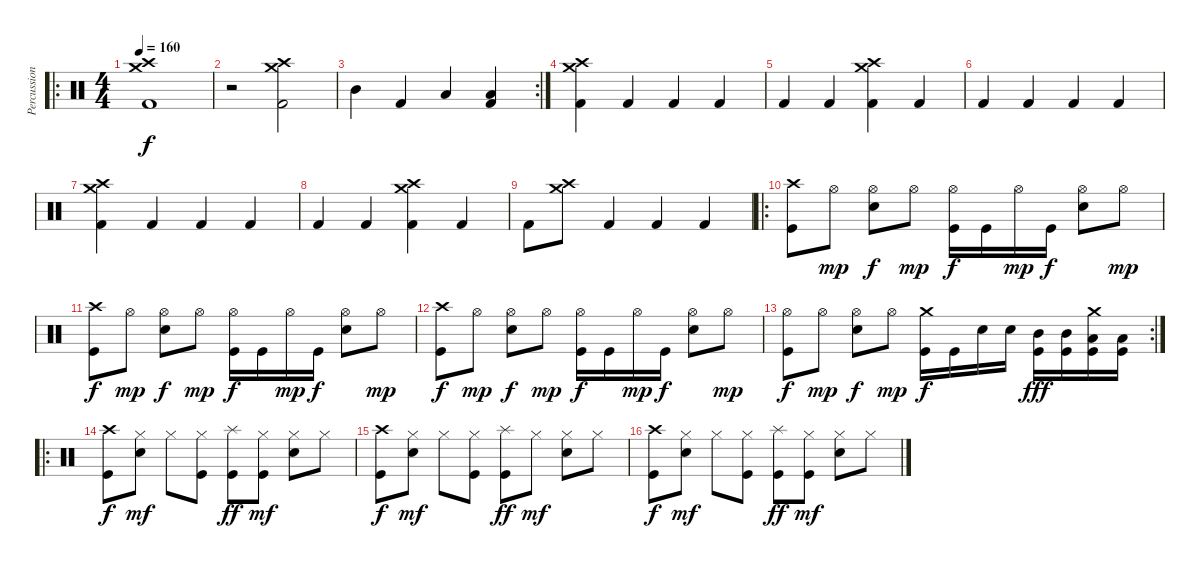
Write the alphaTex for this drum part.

\track ("Percussion" "Percussion") {instrument percussion}
\staff {score}
\articulation defaults
\ro
\ts (4 4)
\tempo 160
\clef neutral
\ks c
("Crash high (hit)" "Crash medium (hit)" "Kick (hit) 2").1{dy f} |
r.2 ("Crash high (hit)" "Crash medium (hit)" "Kick (hit) 2").2 |
\rc 2 "Mid Tom (hit)".4 "Kick (hit) 2".4 "Low Tom (hit)".4
("Low Floor Tom (hit)" "Kick (hit) 2").4 |
("Crash high (hit)" "Crash medium (hit)" "Kick (hit) 2").4 "Kick (hit) 2".4 "Kick (hit) 2".4 "Kick (hit) 2".4 |
"Kick (hit) 2".4 "Kick (hit) 2".4 ("Crash high (hit)" "Crash medium (hit)" "Kick (hit) 2").4 "Kick (hit) 2".4 |
"Kick (hit) 2".4 "Kick (hit) 2".4 "Kick (hit) 2".4 "Kick (hit) 2".4 |
("Crash high (hit)" "Crash medium (hit)" "Kick (hit) 2").4 "Kick (hit) 2".4 "Kick (hit) 2".4 "Kick (hit) 2".4 |
"Kick (hit) 2".4 "Kick (hit) 2".4 ("Crash high (hit)" "Crash medium (hit)" "Kick (hit) 2").4 "Kick (hit) 2".4 |
"Kick (hit) 2".8 ("Crash high (hit)" "Crash medium (hit)").8 "Kick (hit) 2".4 "Kick (hit) 2".4 "Kick (hit) 2".4 |
\ro
("Crash high (hit)" "Kick (hit)").8 "Hi-Hat (open)".8{dy mp} ("Hi-Hat (open)" "Electric Snare (hit)").8{dy f} "Hi-Hat (open)".8{dy mp} ("Hi-Hat (open)" "Kick (hit)").16{dy f} "Kick (hit)".16 "Hi-Hat (open)".16{dy mp} "Kick (hit)".16{dy f} ("Hi-Hat (open)" "Electric Snare (hit)").8 "Hi-Hat (open)".8{dy mp} |
("Crash high (hit)" "Kick (hit)").8{dy f} "Hi-Hat (open)".8{dy mp} ("Hi-Hat (open)" "Electric Snare (hit)").8{dy f} "Hi-Hat (open)".8{dy mp} ("Hi-Hat (open)" "Kick (hit)").16{dy f} "Kick (hit)".16 "Hi-Hat (open)".16{dy mp} "Kick (hit)".16{dy f} ("Hi-Hat (open)" "Electric Snare (hit)").8 "Hi-Hat (open)".8{dy mp} |
("Crash high (hit)" "Kick (hit)").8{dy f} "Hi-Hat (open)".8{dy mp} ("Hi-Hat (open)" "Electric Snare (hit)").8{dy f} "Hi-Hat (open)".8{dy mp} ("Hi-Hat (open)" "Kick (hit)").16{dy f} "Kick (hit)".16 "Hi-Hat (open)".16{dy mp} "Kick (hit)".16{dy f} ("Hi-Hat (open)" "Electric Snare (hit)").8 "Hi-Hat (open)".8{dy mp} |
\rc 2
("Hi-Hat (open)" "Kick (hit)").8{dy f} "Hi-Hat (open)".8{dy mp} ("Hi-Hat (open)" "Electric Snare (hit)").8{dy f} "Hi-Hat (open)".8{dy mp} ("Crash medium (hit)" "Kick (hit)").16{dy f} "Kick (hit)".16 "Electric Snare (hit)".16 "Electric Snare (hit)".16 ("Mid Tom (hit)" "Kick (hit)").16{dy fff} ("Mid Tom (hit)" "Kick (hit)").16 ("Crash medium (hit)" "Low Tom (hit)" "Kick (hit)").16 ("Low Tom (hit)" "Kick (hit)").16 |
\ro
("Crash high (hit)" "Kick (hit)").8{dy f} ("Hi-Hat (closed)" "Electric Snare (hit)").8{dy mf} "Hi-Hat (closed)".8 ("Hi-Hat (closed)" "Kick (hit)").8 ("Splash (hit)" "Kick (hit)").8{dy ff} ("Hi-Hat (closed)" "Kick (hit)").8{dy mf} ("Hi-Hat (closed)" "Electric Snare (hit)").8 "Hi-Hat (closed)".8 |
("Crash high (hit)" "Kick (hit)").8{dy f} ("Hi-Hat (closed)" "Electric Snare (hit)").8{dy mf} "Hi-Hat (closed)".8 ("Hi-Hat (closed)" "Kick (hit)").8 ("Splash (hit)" "Kick (hit)").8{dy ff} "Hi-Hat (closed)".8{dy mf} ("Hi-Hat (closed)" "Electric Snare (hit)").8 "Hi-Hat (closed)".8 |
("Crash high (hit)" "Kick (hit)").8{dy f} ("Hi-Hat (closed)" "Electric Snare (hit)").8{dy mf} "Hi-Hat (closed)".8 ("Hi-Hat (closed)" "Kick (hit)").8 ("Splash (hit)" "Kick (hit)").8{dy ff} ("Hi-Hat (closed)" "Kick (hit)").8{dy mf} ("Hi-Hat (closed)" "Electric Snare (hit)").8 "Hi-Hat (closed)".8
